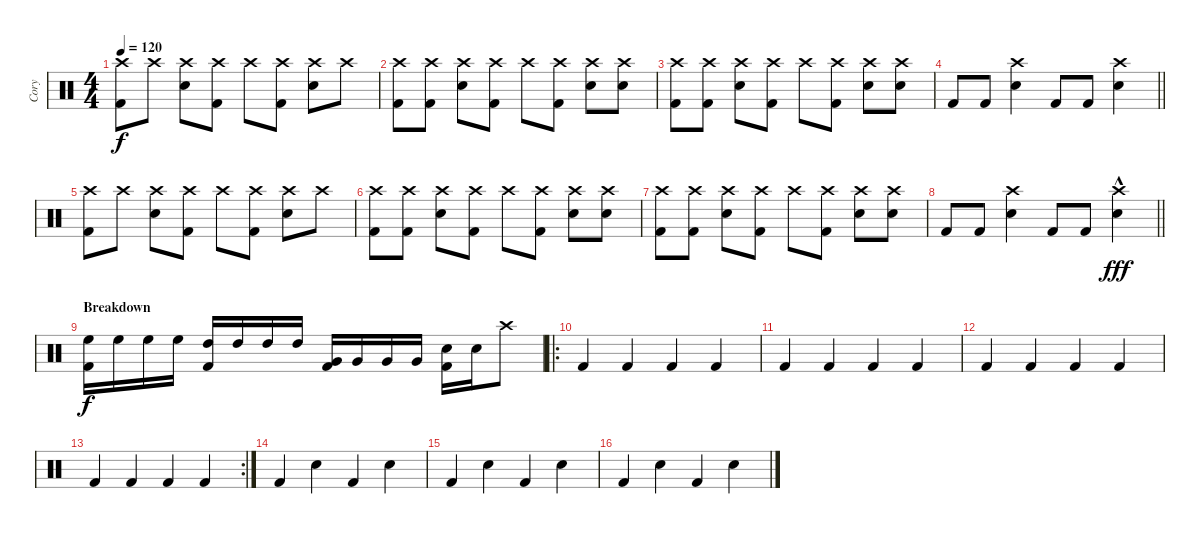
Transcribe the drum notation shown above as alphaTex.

\track ("Cory" "Cory") {instrument percussion}
\staff {score}
\articulation defaults
\ts (4 4)
\tempo 120
\clef neutral
\ks c
("Crash high (hit)" "Kick (hit) 2").8{dy f} "Crash high (hit)".8 ("Crash high (hit)" "Snare (hit) 2").8 ("Crash high (hit)" "Kick (hit) 2").8 "Crash high (hit)".8 ("Crash high (hit)" "Kick (hit) 2").8 ("Crash high (hit)" "Snare (hit) 2").8 "Crash high (hit)".8 |
("Crash high (hit)" "Kick (hit) 2").8 ("Crash high (hit)" "Kick (hit) 2").8 ("Crash high (hit)" "Snare (hit) 2").8 ("Crash high (hit)" "Kick (hit) 2").8 "Crash high (hit)".8 ("Crash high (hit)" "Kick (hit) 2").8 ("Crash high (hit)" "Snare (hit) 2").8 ("Crash high (hit)" "Snare (hit) 2").8 |
("Crash high (hit)" "Kick (hit) 2").8 ("Crash high (hit)" "Kick (hit) 2").8 ("Crash high (hit)" "Snare (hit) 2").8 ("Crash high (hit)" "Kick (hit) 2").8 "Crash high (hit)".8 ("Crash high (hit)" "Kick (hit) 2").8 ("Crash high (hit)" "Snare (hit) 2").8 ("Crash high (hit)" "Snare (hit) 2").8 |
\barLineRight lightlight "Kick (hit) 2".8 "Kick (hit) 2".8
("Crash high (hit)" "Snare (hit) 2").4 "Kick (hit) 2".8 "Kick (hit) 2".8 ("Crash high (hit)" "Snare (hit) 2").4 |
("Crash high (hit)" "Kick (hit) 2").8 "Crash high (hit)".8 ("Crash high (hit)" "Snare (hit) 2").8 ("Crash high (hit)" "Kick (hit) 2").8 "Crash high (hit)".8 ("Crash high (hit)" "Kick (hit) 2").8 ("Crash high (hit)" "Snare (hit) 2").8 "Crash high (hit)".8 |
("Crash high (hit)" "Kick (hit) 2").8 ("Crash high (hit)" "Kick (hit) 2").8 ("Crash high (hit)" "Snare (hit) 2").8 ("Crash high (hit)" "Kick (hit) 2").8 "Crash high (hit)".8 ("Crash high (hit)" "Kick (hit) 2").8 ("Crash high (hit)" "Snare (hit) 2").8 ("Crash high (hit)" "Snare (hit) 2").8 |
("Crash high (hit)" "Kick (hit) 2").8 ("Crash high (hit)" "Kick (hit) 2").8 ("Crash high (hit)" "Snare (hit) 2").8 ("Crash high (hit)" "Kick (hit) 2").8 "Crash high (hit)".8 ("Crash high (hit)" "Kick (hit) 2").8 ("Crash high (hit)" "Snare (hit) 2").8 ("Crash high (hit)" "Snare (hit) 2").8 |
\barLineRight lightlight "Kick (hit) 2".8 "Kick (hit) 2".8
("Crash high (hit)" "Snare (hit) 2").4 "Kick (hit) 2".8 "Kick (hit) 2".8 ("Crash high (hit)"{hac} "Snare (hit) 2").4{dy fff} |
\section ("" "Breakdown")
("High Floor Tom (hit)" "Kick (hit) 2").16{dy f} "High Floor Tom (hit)".16 "High Floor Tom (hit)".16 "High Floor Tom (hit)".16 ("High Tom (hit)" "Kick (hit) 2").16 "High Tom (hit)".16 "High Tom (hit)".16 "High Tom (hit)".16 ("Very Low Tom (hit)" "Kick (hit) 2").16 "Very Low Tom (hit)".16 "Very Low Tom (hit)".16 "Very Low Tom (hit)".16 ("Snare (hit) 2" "Kick (hit) 2").16 "Snare (hit) 2".16 "Crash high (hit)".8 |
\ro "Kick (hit) 2".4 "Kick (hit) 2".4 "Kick (hit) 2".4 "Kick (hit) 2".4
|
"Kick (hit) 2".4 "Kick (hit) 2".4 "Kick (hit) 2".4 "Kick (hit) 2".4 |
"Kick (hit) 2".4 "Kick (hit) 2".4 "Kick (hit) 2".4 "Kick (hit) 2".4 |
\rc 2 "Kick (hit) 2".4 "Kick (hit) 2".4 "Kick (hit) 2".4 "Kick (hit) 2".4
|
"Kick (hit) 2".4 "Snare (hit) 2".4 "Kick (hit) 2".4 "Snare (hit) 2".4 |
"Kick (hit) 2".4 "Snare (hit) 2".4 "Kick (hit) 2".4 "Snare (hit) 2".4 |
"Kick (hit) 2".4 "Snare (hit) 2".4 "Kick (hit) 2".4 "Snare (hit) 2".4
